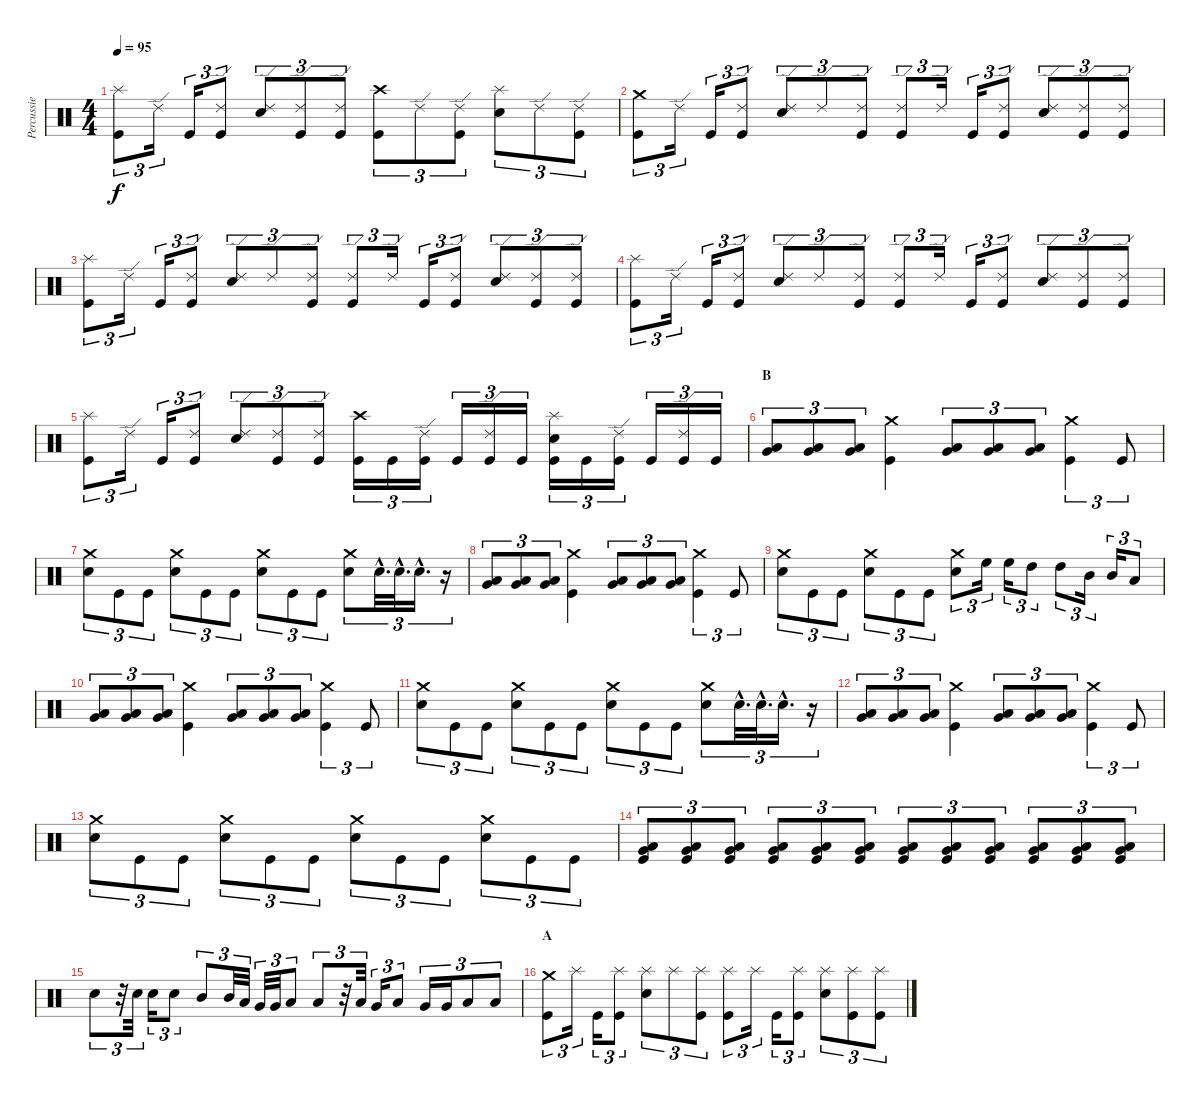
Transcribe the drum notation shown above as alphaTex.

\track ("Percussie" "Percussie") {instrument percussion}
\staff {score}
\articulation defaults
\ts (4 4)
\tempo 95
\clef neutral
\ks c
("Splash (hit)" "Kick (hit)").8{tu (3 2) dy f} "Ride (edge) 2".16{tu (3 2)} "Kick (hit)".16{tu (3 2)} ("Ride (edge) 2" "Kick (hit)").8{tu (3 2)} ("Ride (edge) 2" "Electric Snare (hit)").8{tu (3 2)} ("Ride (edge) 2" "Kick (hit)").8{tu (3 2)} ("Ride (edge) 2" "Kick (hit)").8{tu (3 2)} ("Crash high (hit)" "Kick (hit)").8{tu (3 2)} "Ride (edge) 2".8{tu (3 2)} ("Ride (edge) 2" "Kick (hit)").8{tu (3 2)} ("Splash (hit)" "Electric Snare (hit)").8{tu (3 2)} "Ride (edge) 2".8{tu (3 2)} ("Ride (edge) 2" "Kick (hit)").8{tu (3 2)} |
("Crash medium (hit)" "Kick (hit)").8{tu (3 2)} "Ride (edge) 2".16{tu (3 2)} "Kick (hit)".16{tu (3 2)} ("Ride (edge) 2" "Kick (hit)").8{tu (3 2)} ("Ride (edge) 2" "Electric Snare (hit)").8{tu (3 2)} "Ride (edge) 2".8{tu (3 2)} ("Ride (edge) 2" "Kick (hit)").8{tu (3 2)} ("Ride (edge) 2" "Kick (hit)").8{tu (3 2)} "Ride (edge) 2".16{tu (3 2)} "Kick (hit)".16{tu (3 2)} ("Ride (edge) 2" "Kick (hit)").8{tu (3 2)} ("Ride (edge) 2" "Electric Snare (hit)").8{tu (3 2)} ("Ride (edge) 2" "Kick (hit)").8{tu (3 2)} ("Ride (edge) 2" "Kick (hit)").8{tu (3 2)} |
("Splash (hit)" "Kick (hit)").8{tu (3 2)} "Ride (edge) 2".16{tu (3 2)} "Kick (hit)".16{tu (3 2)} ("Ride (edge) 2" "Kick (hit)").8{tu (3 2)} ("Ride (edge) 2" "Electric Snare (hit)").8{tu (3 2)} "Ride (edge) 2".8{tu (3 2)} ("Ride (edge) 2" "Kick (hit)").8{tu (3 2)} ("Ride (edge) 2" "Kick (hit)").8{tu (3 2)} "Ride (edge) 2".16{tu (3 2)} "Kick (hit)".16{tu (3 2)} ("Ride (edge) 2" "Kick (hit)").8{tu (3 2)} ("Ride (edge) 2" "Electric Snare (hit)").8{tu (3 2)} ("Ride (edge) 2" "Kick (hit)").8{tu (3 2)} ("Ride (edge) 2" "Kick (hit)").8{tu (3 2)} |
("Splash (hit)" "Kick (hit)").8{tu (3 2)} "Ride (edge) 2".16{tu (3 2)} "Kick (hit)".16{tu (3 2)} ("Ride (edge) 2" "Kick (hit)").8{tu (3 2)} ("Ride (edge) 2" "Electric Snare (hit)").8{tu (3 2)} "Ride (edge) 2".8{tu (3 2)} ("Ride (edge) 2" "Kick (hit)").8{tu (3 2)} ("Ride (edge) 2" "Kick (hit)").8{tu (3 2)} "Ride (edge) 2".16{tu (3 2)} "Kick (hit)".16{tu (3 2)} ("Ride (edge) 2" "Kick (hit)").8{tu (3 2)} ("Ride (edge) 2" "Electric Snare (hit)").8{tu (3 2)} ("Ride (edge) 2" "Kick (hit)").8{tu (3 2)} ("Ride (edge) 2" "Kick (hit)").8{tu (3 2)} |
("Splash (hit)" "Kick (hit)").8{tu (3 2)} "Ride (edge) 2".16{tu (3 2)} "Kick (hit)".16{tu (3 2)} ("Ride (edge) 2" "Kick (hit)").8{tu (3 2)} ("Ride (edge) 2" "Electric Snare (hit)").8{tu (3 2)} ("Ride (edge) 2" "Kick (hit)").8{tu (3 2)} ("Ride (edge) 2" "Kick (hit)").8{tu (3 2)} ("Crash high (hit)" "Kick (hit)").16{tu (3 2)} "Kick (hit)".16{tu (3 2)} ("Ride (edge) 2" "Kick (hit)").16{tu (3 2)} "Kick (hit)".16{tu (3 2)} ("Ride (edge) 2" "Kick (hit)").16{tu (3 2)} "Kick (hit)".16{tu (3 2)} ("Splash (hit)" "Electric Snare (hit)" "Kick (hit)").16{tu (3 2)} "Kick (hit)".16{tu (3 2)} ("Ride (edge) 2" "Kick (hit)").16{tu (3 2)} "Kick (hit)".16{tu (3 2)} ("Ride (edge) 2" "Kick (hit)").16{tu (3 2)} "Kick (hit)".16{tu (3 2)} |
\section ("" "B")
("Very Low Tom (hit)" "Low Floor Tom (hit)").8{tu (3 2)} ("Very Low Tom (hit)" "Low Floor Tom (hit)").8{tu (3 2)} ("Very Low Tom (hit)" "Low Floor Tom (hit)").8{tu (3 2)} ("Crash medium (hit)" "Kick (hit)").4 ("Very Low Tom (hit)" "Low Floor Tom (hit)").8{tu (3 2)} ("Very Low Tom (hit)" "Low Floor Tom (hit)").8{tu (3 2)} ("Very Low Tom (hit)" "Low Floor Tom (hit)").8{tu (3 2)} ("Crash medium (hit)" "Kick (hit)").4{tu (3 2)} "Kick (hit)".8{tu (3 2)} |
("Crash medium (hit)" "Electric Snare (hit)").8{tu (3 2)} "Kick (hit)".8{tu (3 2)} "Kick (hit)".8{tu (3 2)} ("Crash medium (hit)" "Electric Snare (hit)").8{tu (3 2)} "Kick (hit)".8{tu (3 2)} "Kick (hit)".8{tu (3 2)} ("Crash medium (hit)" "Electric Snare (hit)").8{tu (3 2)} "Kick (hit)".8{tu (3 2)} "Kick (hit)".8{tu (3 2)} ("Crash medium (hit)" "Electric Snare (hit)").8{tu (3 2)} "Electric Snare (hit)"{hac}.32{d tu (3 2)} "Electric Snare (hit)"{hac}.32{d tu (3 2)} "Electric Snare (hit)"{hac}.16{d tu (3 2)} r.16{tu (3 2)} |
("Very Low Tom (hit)" "Low Floor Tom (hit)").8{tu (3 2)} ("Very Low Tom (hit)" "Low Floor Tom (hit)").8{tu (3 2)} ("Very Low Tom (hit)" "Low Floor Tom (hit)").8{tu (3 2)} ("Crash medium (hit)" "Kick (hit)").4 ("Very Low Tom (hit)" "Low Floor Tom (hit)").8{tu (3 2)} ("Very Low Tom (hit)" "Low Floor Tom (hit)").8{tu (3 2)} ("Very Low Tom (hit)" "Low Floor Tom (hit)").8{tu (3 2)} ("Crash medium (hit)" "Kick (hit)").4{tu (3 2)} "Kick (hit)".8{tu (3 2)} |
("Crash medium (hit)" "Electric Snare (hit)").8{tu (3 2)} "Kick (hit)".8{tu (3 2)} "Kick (hit)".8{tu (3 2)} ("Crash medium (hit)" "Electric Snare (hit)").8{tu (3 2)} "Kick (hit)".8{tu (3 2)} "Kick (hit)".8{tu (3 2)} ("Crash medium (hit)" "Electric Snare (hit)").8{tu (3 2)} "High Floor Tom (hit)".16{tu (3 2)} "High Floor Tom (hit)".16{tu (3 2)} "High Tom (hit)".8{tu (3 2)} "High Tom (hit)".8{tu (3 2)} "Mid Tom (hit)".16{tu (3 2)} "Mid Tom (hit)".16{tu (3 2)} "Low Tom (hit)".8{tu (3 2)} |
("Very Low Tom (hit)" "Low Floor Tom (hit)").8{tu (3 2)} ("Very Low Tom (hit)" "Low Floor Tom (hit)").8{tu (3 2)} ("Very Low Tom (hit)" "Low Floor Tom (hit)").8{tu (3 2)} ("Crash medium (hit)" "Kick (hit)").4 ("Very Low Tom (hit)" "Low Floor Tom (hit)").8{tu (3 2)} ("Very Low Tom (hit)" "Low Floor Tom (hit)").8{tu (3 2)} ("Very Low Tom (hit)" "Low Floor Tom (hit)").8{tu (3 2)} ("Crash medium (hit)" "Kick (hit)").4{tu (3 2)} "Kick (hit)".8{tu (3 2)} |
("Crash medium (hit)" "Electric Snare (hit)").8{tu (3 2)} "Kick (hit)".8{tu (3 2)} "Kick (hit)".8{tu (3 2)} ("Crash medium (hit)" "Electric Snare (hit)").8{tu (3 2)} "Kick (hit)".8{tu (3 2)} "Kick (hit)".8{tu (3 2)} ("Crash medium (hit)" "Electric Snare (hit)").8{tu (3 2)} "Kick (hit)".8{tu (3 2)} "Kick (hit)".8{tu (3 2)} ("Crash medium (hit)" "Electric Snare (hit)").8{tu (3 2)} "Electric Snare (hit)"{hac}.32{d tu (3 2)} "Electric Snare (hit)"{hac}.32{d tu (3 2)} "Electric Snare (hit)"{hac}.16{d tu (3 2)} r.16{tu (3 2)} |
("Very Low Tom (hit)" "Low Floor Tom (hit)").8{tu (3 2)} ("Very Low Tom (hit)" "Low Floor Tom (hit)").8{tu (3 2)} ("Very Low Tom (hit)" "Low Floor Tom (hit)").8{tu (3 2)} ("Crash medium (hit)" "Kick (hit)").4 ("Very Low Tom (hit)" "Low Floor Tom (hit)").8{tu (3 2)} ("Very Low Tom (hit)" "Low Floor Tom (hit)").8{tu (3 2)} ("Very Low Tom (hit)" "Low Floor Tom (hit)").8{tu (3 2)} ("Crash medium (hit)" "Kick (hit)").4{tu (3 2)} "Kick (hit)".8{tu (3 2)} |
("Crash medium (hit)" "Electric Snare (hit)").8{tu (3 2)} "Kick (hit)".8{tu (3 2)} "Kick (hit)".8{tu (3 2)} ("Crash medium (hit)" "Electric Snare (hit)").8{tu (3 2)} "Kick (hit)".8{tu (3 2)} "Kick (hit)".8{tu (3 2)} ("Crash medium (hit)" "Electric Snare (hit)").8{tu (3 2)} "Kick (hit)".8{tu (3 2)} "Kick (hit)".8{tu (3 2)} ("Crash medium (hit)" "Electric Snare (hit)").8{tu (3 2)} "Kick (hit)".8{tu (3 2)} "Kick (hit)".8{tu (3 2)} |
("Very Low Tom (hit)" "Low Floor Tom (hit)" "Kick (hit)").8{tu (3 2)} ("Very Low Tom (hit)" "Low Floor Tom (hit)" "Kick (hit)").8{tu (3 2)} ("Very Low Tom (hit)" "Low Floor Tom (hit)" "Kick (hit)").8{tu (3 2)} ("Very Low Tom (hit)" "Low Floor Tom (hit)" "Kick (hit)").8{tu (3 2)} ("Very Low Tom (hit)" "Low Floor Tom (hit)" "Kick (hit)").8{tu (3 2)} ("Very Low Tom (hit)" "Low Floor Tom (hit)" "Kick (hit)").8{tu (3 2)} ("Very Low Tom (hit)" "Low Floor Tom (hit)" "Kick (hit)").8{tu (3 2)} ("Very Low Tom (hit)" "Low Floor Tom (hit)" "Kick (hit)").8{tu (3 2)} ("Very Low Tom (hit)" "Low Floor Tom (hit)" "Kick (hit)").8{tu (3 2)} ("Very Low Tom (hit)" "Low Floor Tom (hit)" "Kick (hit)").8{tu (3 2)} ("Very Low Tom (hit)" "Low Floor Tom (hit)" "Kick (hit)").8{tu (3 2)} ("Very Low Tom (hit)" "Low Floor Tom (hit)" "Kick (hit)").8{tu (3 2)} |
"Electric Snare (hit)".8{tu (3 2)} r.32{tu (3 2)} "Electric Snare (hit)".32{tu (3 2)} "Electric Snare (hit)".16{tu (3 2)} "Electric Snare (hit)".8{tu (3 2)} "Mid Tom (hit)".8{tu (3 2)} "Mid Tom (hit)".32{tu (3 2)} "Low Tom (hit)".32{tu (3 2)} "Very Low Tom (hit)".32{tu (3 2)} "Very Low Tom (hit)".32{tu (3 2)} "Low Floor Tom (hit)".8{tu (3 2)} "Low Tom (hit)".8{tu (3 2)} r.32{tu (3 2)} "Low Tom (hit)".32{tu (3 2)} "Very Low Tom (hit)".16{tu (3 2)} "Low Floor Tom (hit)".8{tu (3 2)} "Very Low Tom (hit)".16{tu (3 2)} "Very Low Tom (hit)".16{tu (3 2)} "Low Floor Tom (hit)".8{tu (3 2)} "Low Tom (hit)".8{tu (3 2)} |
\section ("" "A")
("Crash medium (hit)" "Kick (hit)").8{tu (3 2)} "Splash (hit)".16{tu (3 2)} "Kick (hit)".16{tu (3 2)} ("Splash (hit)" "Kick (hit)").8{tu (3 2)} ("Splash (hit)" "Electric Snare (hit)").8{tu (3 2)} "Splash (hit)".8{tu (3 2)} ("Splash (hit)" "Kick (hit)").8{tu (3 2)} ("Splash (hit)" "Kick (hit)").8{tu (3 2)} "Splash (hit)".16{tu (3 2)} "Kick (hit)".16{tu (3 2)} ("Splash (hit)" "Kick (hit)").8{tu (3 2)} ("Splash (hit)" "Electric Snare (hit)").8{tu (3 2)} ("Splash (hit)" "Kick (hit)").8{tu (3 2)} ("Splash (hit)" "Kick (hit)").8{tu (3 2)}
